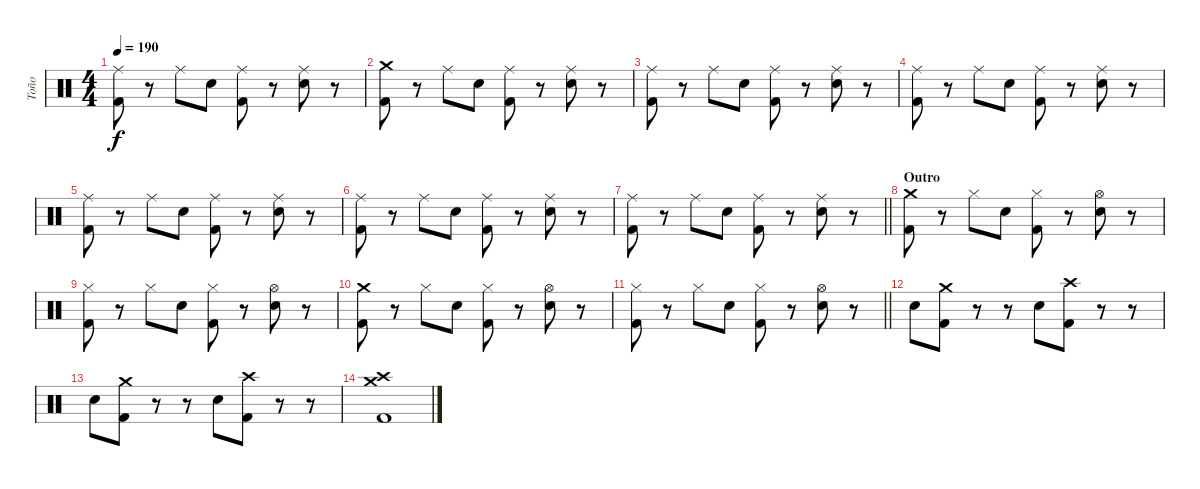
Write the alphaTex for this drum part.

\track ("Toño" "Toño") {instrument percussion}
\staff {score}
\articulation defaults
\ts (4 4)
\tempo 190
\clef neutral
\ks c
("Ride (middle)" "Kick (hit) 2").8{dy f} r.8 "Ride (middle)".8 "Snare (hit) 2".8 ("Ride (middle)" "Kick (hit) 2").8 r.8 ("Ride (middle)" "Snare (hit) 2").8 r.8 |
("Crash medium (hit)" "Kick (hit) 2").8 r.8 "Ride (middle)".8 "Snare (hit) 2".8 ("Ride (middle)" "Kick (hit) 2").8 r.8 ("Ride (middle)" "Snare (hit) 2").8 r.8 |
("Ride (middle)" "Kick (hit) 2").8 r.8 "Ride (middle)".8 "Snare (hit) 2".8 ("Ride (middle)" "Kick (hit) 2").8 r.8 ("Ride (middle)" "Snare (hit) 2").8 r.8 |
("Ride (middle)" "Kick (hit) 2").8 r.8 "Ride (middle)".8 "Snare (hit) 2".8 ("Ride (middle)" "Kick (hit) 2").8 r.8 ("Ride (middle)" "Snare (hit) 2").8 r.8 |
("Ride (middle)" "Kick (hit) 2").8 r.8 "Ride (middle)".8 "Snare (hit) 2".8 ("Ride (middle)" "Kick (hit) 2").8 r.8 ("Ride (middle)" "Snare (hit) 2").8 r.8 |
("Ride (middle)" "Kick (hit) 2").8 r.8 "Ride (middle)".8 "Snare (hit) 2".8 ("Ride (middle)" "Kick (hit) 2").8 r.8 ("Ride (middle)" "Snare (hit) 2").8 r.8 |
\barLineRight lightlight
("Ride (middle)" "Kick (hit) 2").8 r.8 "Ride (middle)".8 "Snare (hit) 2".8 ("Ride (middle)" "Kick (hit) 2").8 r.8 ("Ride (middle)" "Snare (hit) 2").8 r.8 |
\section ("" "Outro")
("Crash medium (hit)" "Kick (hit) 2").8 r.8 "Hi-Hat (closed)".8 "Snare (hit) 2".8 ("Hi-Hat (closed)" "Kick (hit) 2").8 r.8 ("Hi-Hat (open)" "Snare (hit) 2").8 r.8 |
("Hi-Hat (closed)" "Kick (hit) 2").8 r.8 "Hi-Hat (closed)".8 "Snare (hit) 2".8 ("Hi-Hat (closed)" "Kick (hit) 2").8 r.8 ("Hi-Hat (open)" "Snare (hit) 2").8 r.8 |
("Crash medium (hit)" "Kick (hit) 2").8 r.8 "Hi-Hat (closed)".8 "Snare (hit) 2".8 ("Hi-Hat (closed)" "Kick (hit) 2").8 r.8 ("Hi-Hat (open)" "Snare (hit) 2").8 r.8 |
\barLineRight lightlight
("Hi-Hat (closed)" "Kick (hit) 2").8 r.8 "Hi-Hat (closed)".8 "Snare (hit) 2".8 ("Hi-Hat (closed)" "Kick (hit) 2").8 r.8 ("Hi-Hat (open)" "Snare (hit) 2").8 r.8 |
"Snare (hit) 2".8 ("Crash medium (hit)" "Kick (hit) 2").8 r.8 r.8 "Snare (hit) 2".8 ("Crash high (hit)" "Kick (hit) 2").8 r.8 r.8 |
"Snare (hit) 2".8 ("Crash medium (hit)" "Kick (hit) 2").8 r.8 r.8 "Snare (hit) 2".8 ("Crash high (hit)" "Kick (hit) 2").8 r.8 r.8 |
("Crash high (hit)" "Crash medium (hit)" "Kick (hit) 2").1
